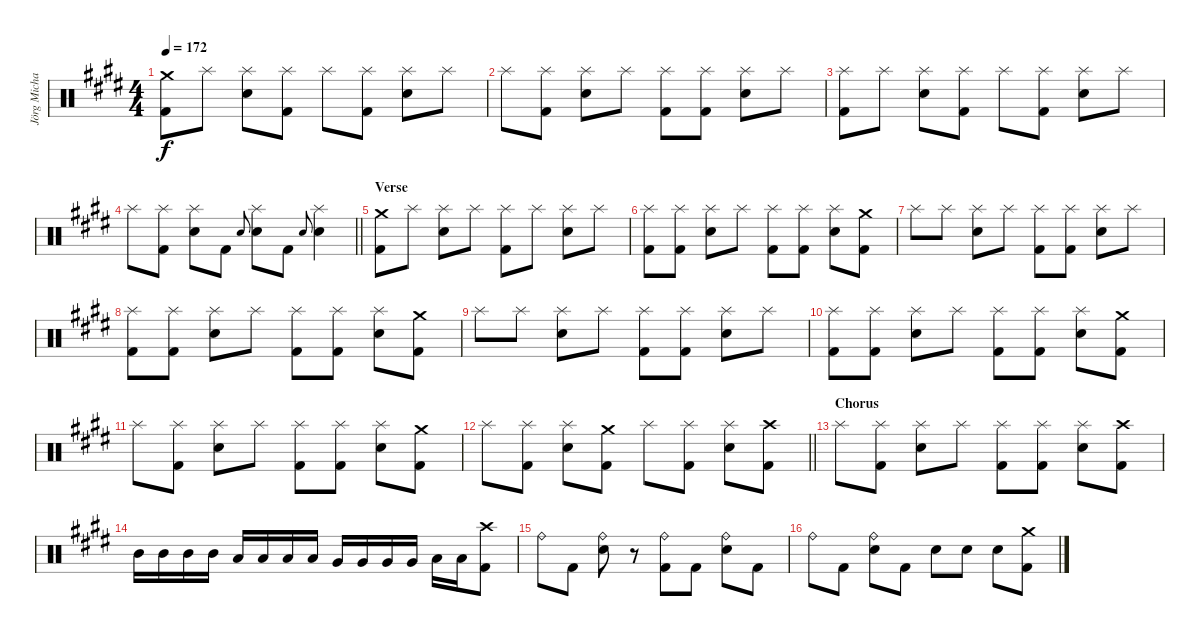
\track ("Jörg Michael" "Jörg Micha") {instrument percussion}
\staff {score}
\articulation defaults
\ts (4 4)
\tempo 172
\clef neutral
\ks c#minor
("Crash medium (hit)" "Kick (hit) 2").8{dy f} "Splash (hit)".8 ("Splash (hit)" "Snare (hit) 2").8 ("Splash (hit)" "Kick (hit) 2").8 "Splash (hit)".8 ("Splash (hit)" "Kick (hit) 2").8 ("Splash (hit)" "Snare (hit) 2").8 "Splash (hit)".8 |
"Splash (hit)".8 ("Splash (hit)" "Kick (hit) 2").8 ("Splash (hit)" "Snare (hit) 2").8 "Splash (hit)".8 ("Splash (hit)" "Kick (hit) 2").8 ("Splash (hit)" "Kick (hit) 2").8 ("Splash (hit)" "Snare (hit) 2").8 "Splash (hit)".8 |
("Splash (hit)" "Kick (hit) 2").8 "Splash (hit)".8 ("Splash (hit)" "Snare (hit) 2").8 ("Splash (hit)" "Kick (hit) 2").8 "Splash (hit)".8 ("Splash (hit)" "Kick (hit) 2").8 ("Splash (hit)" "Snare (hit) 2").8 "Splash (hit)".8 |
\barLineRight lightlight "Splash (hit)".8
("Splash (hit)" "Kick (hit) 2").8 ("Splash (hit)" "Snare (hit) 2").8 "Kick (hit) 2".8 "Snare (hit) 2".8{gr onbeat} ("Splash (hit)" "Snare (hit) 2").8 "Kick (hit) 2".8 "Snare (hit) 2".8{gr onbeat} ("Splash (hit)" "Snare (hit) 2").4 |
\section ("" "Verse")
("Crash medium (hit)" "Kick (hit) 2").8 "Splash (hit)".8 ("Splash (hit)" "Snare (hit) 2").8 "Splash (hit)".8 ("Splash (hit)" "Kick (hit) 2").8 "Splash (hit)".8 ("Splash (hit)" "Snare (hit) 2").8 "Splash (hit)".8 |
("Splash (hit)" "Kick (hit) 2").8 ("Splash (hit)" "Kick (hit) 2").8 ("Splash (hit)" "Snare (hit) 2").8 "Splash (hit)".8 ("Splash (hit)" "Kick (hit) 2").8 ("Splash (hit)" "Kick (hit) 2").8 ("Splash (hit)" "Snare (hit) 2").8 ("Crash medium (hit)" "Kick (hit) 2").8 |
"Splash (hit)".8 "Splash (hit)".8 ("Splash (hit)" "Snare (hit) 2").8 "Splash (hit)".8 ("Splash (hit)" "Kick (hit) 2").8 ("Splash (hit)" "Kick (hit) 2").8 ("Splash (hit)" "Snare (hit) 2").8 "Splash (hit)".8 |
("Splash (hit)" "Kick (hit) 2").8 ("Splash (hit)" "Kick (hit) 2").8 ("Splash (hit)" "Snare (hit) 2").8 "Splash (hit)".8 ("Splash (hit)" "Kick (hit) 2").8 ("Splash (hit)" "Kick (hit) 2").8 ("Splash (hit)" "Snare (hit) 2").8 ("Crash medium (hit)" "Kick (hit) 2").8 |
"Splash (hit)".8 "Splash (hit)".8 ("Splash (hit)" "Snare (hit) 2").8 "Splash (hit)".8 ("Splash (hit)" "Kick (hit) 2").8 ("Splash (hit)" "Kick (hit) 2").8 ("Splash (hit)" "Snare (hit) 2").8 "Splash (hit)".8 |
("Splash (hit)" "Kick (hit) 2").8 ("Splash (hit)" "Kick (hit) 2").8 ("Splash (hit)" "Snare (hit) 2").8 "Splash (hit)".8 ("Splash (hit)" "Kick (hit) 2").8 ("Splash (hit)" "Kick (hit) 2").8 ("Splash (hit)" "Snare (hit) 2").8 ("Crash medium (hit)" "Kick (hit) 2").8 |
"Splash (hit)".8 ("Splash (hit)" "Kick (hit) 2").8 ("Splash (hit)" "Snare (hit) 2").8 "Splash (hit)".8 ("Splash (hit)" "Kick (hit) 2").8 ("Splash (hit)" "Kick (hit) 2").8 ("Splash (hit)" "Snare (hit) 2").8 ("Crash medium (hit)" "Kick (hit) 2").8 |
\barLineRight lightlight "Splash (hit)".8
("Splash (hit)" "Kick (hit) 2").8 ("Splash (hit)" "Snare (hit) 2").8 ("Crash medium (hit)" "Kick (hit) 2").8 "Splash (hit)".8 ("Splash (hit)" "Kick (hit) 2").8 ("Splash (hit)" "Snare (hit) 2").8 ("Crash high (hit)" "Kick (hit) 2").8 |
\section ("" "Chorus")
"Splash (hit)".8 ("Splash (hit)" "Kick (hit) 2").8 ("Splash (hit)" "Snare (hit) 2").8 "Splash (hit)".8 ("Splash (hit)" "Kick (hit) 2").8 ("Splash (hit)" "Kick (hit) 2").8 ("Splash (hit)" "Snare (hit) 2").8 ("Crash high (hit)" "Kick (hit) 2").8 |
"Mid Tom (hit)".16 "Mid Tom (hit)".16 "Mid Tom (hit)".16 "Mid Tom (hit)".16 "Low Tom (hit)".16 "Low Tom (hit)".16 "Low Tom (hit)".16 "Low Tom (hit)".16 "Very Low Tom (hit)".16 "Very Low Tom (hit)".16 "Very Low Tom (hit)".16 "Very Low Tom (hit)".16 "Low Floor Tom (hit)".16 "Low Floor Tom (hit)".16 ("Crash high (hit)" "Kick (hit) 2").8 |
"Ride (bell)".8 "Kick (hit) 2".8 ("Ride (bell)" "Snare (hit) 2").8 r.8 ("Ride (bell)" "Kick (hit) 2").8 "Kick (hit) 2".8 ("Ride (bell)" "Snare (hit) 2").8 "Kick (hit) 2".8 |
"Ride (bell)".8 "Kick (hit) 2".8 ("Ride (bell)" "Snare (hit) 2").8 "Kick (hit) 2".8 "Snare (hit) 2".8 "Snare (hit) 2".8 "Snare (hit) 2".8 ("Crash medium (hit)" "Kick (hit) 2").8
